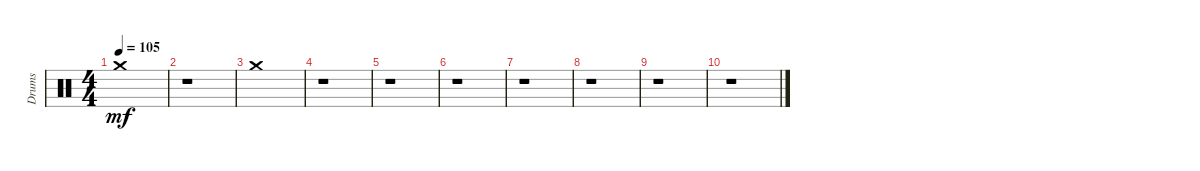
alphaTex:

\track ("Drums" "Drums") {instrument percussion}
\staff {score}
\articulation defaults
\ts (4 4)
\tempo 105
\clef neutral
\ks c "Crash medium (hit)".1{dy mf}
|
r.1 |
"Crash medium (hit)".1 |
r.1 |
r.1 |
r.1 |
r.1 |
r.1 |
r.1 |
r.1
